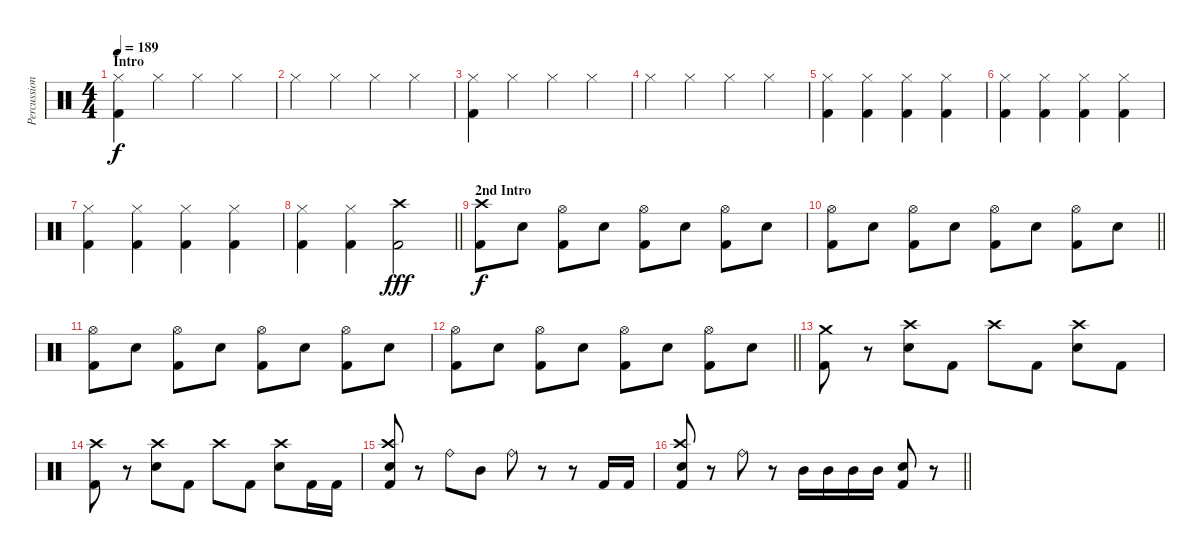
\track ("Percussion" "Percussion") {instrument percussion}
\staff {score}
\articulation defaults
\ts (4 4)
\section ("" "Intro ")
\tempo 189
\clef neutral
\ks c
("Hi-Hat (closed)" "Kick (hit) 2").4{dy f} "Hi-Hat (closed)".4 "Hi-Hat (closed)".4 "Hi-Hat (closed)".4 |
"Hi-Hat (closed)".4 "Hi-Hat (closed)".4 "Hi-Hat (closed)".4 "Hi-Hat (closed)".4 |
("Hi-Hat (closed)" "Kick (hit) 2").4 "Hi-Hat (closed)".4 "Hi-Hat (closed)".4 "Hi-Hat (closed)".4 |
"Hi-Hat (closed)".4 "Hi-Hat (closed)".4 "Hi-Hat (closed)".4 "Hi-Hat (closed)".4 |
("Hi-Hat (closed)" "Kick (hit) 2").4 ("Hi-Hat (closed)" "Kick (hit) 2").4 ("Hi-Hat (closed)" "Kick (hit) 2").4 ("Hi-Hat (closed)" "Kick (hit) 2").4 |
("Hi-Hat (closed)" "Kick (hit) 2").4 ("Hi-Hat (closed)" "Kick (hit) 2").4 ("Hi-Hat (closed)" "Kick (hit) 2").4 ("Hi-Hat (closed)" "Kick (hit) 2").4 |
("Hi-Hat (closed)" "Kick (hit) 2").4 ("Hi-Hat (closed)" "Kick (hit) 2").4 ("Hi-Hat (closed)" "Kick (hit) 2").4 ("Hi-Hat (closed)" "Kick (hit) 2").4 |
\barLineRight lightlight
("Hi-Hat (closed)" "Kick (hit) 2").4 ("Hi-Hat (closed)" "Kick (hit) 2").4 ("Crash high (hit)" "Kick (hit) 2").2{dy fff} |
\section ("" "2nd Intro")
("Crash high (hit)" "Kick (hit) 2").8{dy f} "Electric Snare (hit)".8 ("Hi-Hat (open)" "Kick (hit) 2").8 "Electric Snare (hit)".8 ("Hi-Hat (open)" "Kick (hit) 2").8 "Electric Snare (hit)".8 ("Hi-Hat (open)" "Kick (hit) 2").8 "Electric Snare (hit)".8 |
\barLineRight lightlight
("Hi-Hat (open)" "Kick (hit) 2").8 "Electric Snare (hit)".8 ("Hi-Hat (open)" "Kick (hit) 2").8 "Electric Snare (hit)".8 ("Hi-Hat (open)" "Kick (hit) 2").8 "Electric Snare (hit)".8 ("Hi-Hat (open)" "Kick (hit) 2").8 "Electric Snare (hit)".8 |
\section ("" "")
("Hi-Hat (open)" "Kick (hit) 2").8 "Electric Snare (hit)".8 ("Hi-Hat (open)" "Kick (hit) 2").8 "Electric Snare (hit)".8 ("Hi-Hat (open)" "Kick (hit) 2").8 "Electric Snare (hit)".8 ("Hi-Hat (open)" "Kick (hit) 2").8 "Electric Snare (hit)".8 |
\barLineRight lightlight
("Hi-Hat (open)" "Kick (hit) 2").8 "Electric Snare (hit)".8 ("Hi-Hat (open)" "Kick (hit) 2").8 "Electric Snare (hit)".8 ("Hi-Hat (open)" "Kick (hit) 2").8 "Electric Snare (hit)".8 ("Hi-Hat (open)" "Kick (hit) 2").8 "Electric Snare (hit)".8 |
("Crash medium (hit)" "Kick (hit) 2").8 r.8 ("Crash high (hit)" "Electric Snare (hit)").8 "Kick (hit) 2".8 "Crash high (hit)".8 "Kick (hit) 2".8 ("Crash high (hit)" "Electric Snare (hit)").8 "Kick (hit) 2".8 |
("Crash high (hit)" "Kick (hit) 2").8 r.8 ("Crash high (hit)" "Electric Snare (hit)").8 "Kick (hit) 2".8 "Crash high (hit)".8 "Kick (hit) 2".8 ("Crash high (hit)" "Electric Snare (hit)").8 "Kick (hit) 2".16 "Kick (hit) 2".16 |
("Crash high (hit)" "Electric Snare (hit)" "Kick (hit) 2").8 r.8 "Ride (bell)".8 "Mid Tom (hit)".8 "Ride (bell)".8 r.8 r.8 "Kick (hit) 2".16 "Kick (hit) 2".16 |
\barLineRight lightlight
("Crash high (hit)" "Electric Snare (hit)" "Kick (hit) 2").8 r.8 "Ride (bell)".8 r.8 "Mid Tom (hit)".16 "Mid Tom (hit)".16 "Mid Tom (hit)".16 "Mid Tom (hit)".16 ("Electric Snare (hit)" "Kick (hit) 2").8 r.8
